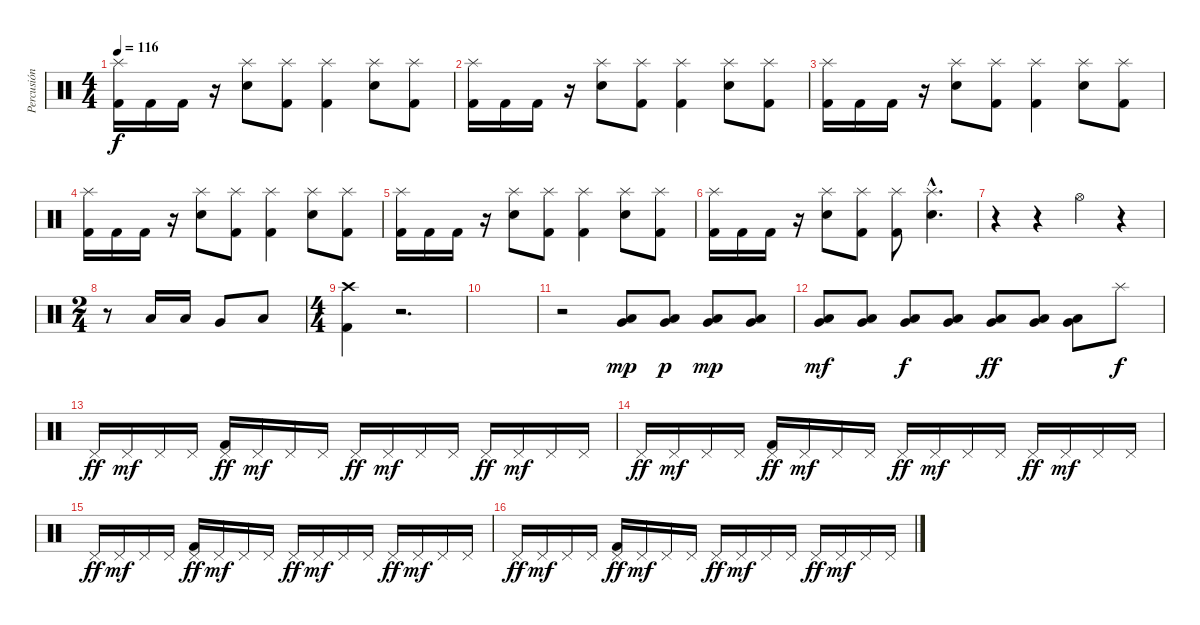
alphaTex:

\track ("Percusión" "Percusión") {instrument percussion}
\staff {score}
\articulation defaults
\ts (4 4)
\tempo 116
\clef neutral
\ks c
("Splash (hit)" "Kick (hit) 2").16{dy f} "Kick (hit) 2".16 "Kick (hit) 2".16 r.16 ("Splash (hit)" "Snare (hit) 2").8 ("Splash (hit)" "Kick (hit) 2").8 ("Splash (hit)" "Kick (hit) 2").4 ("Splash (hit)" "Snare (hit) 2").8 ("Splash (hit)" "Kick (hit) 2").8 |
("Splash (hit)" "Kick (hit) 2").16 "Kick (hit) 2".16 "Kick (hit) 2".16 r.16 ("Splash (hit)" "Snare (hit) 2").8 ("Splash (hit)" "Kick (hit) 2").8 ("Splash (hit)" "Kick (hit) 2").4 ("Splash (hit)" "Snare (hit) 2").8 ("Splash (hit)" "Kick (hit) 2").8 |
("Splash (hit)" "Kick (hit) 2").16 "Kick (hit) 2".16 "Kick (hit) 2".16 r.16 ("Splash (hit)" "Snare (hit) 2").8 ("Splash (hit)" "Kick (hit) 2").8 ("Splash (hit)" "Kick (hit) 2").4 ("Splash (hit)" "Snare (hit) 2").8 ("Splash (hit)" "Kick (hit) 2").8 |
("Splash (hit)" "Kick (hit) 2").16 "Kick (hit) 2".16 "Kick (hit) 2".16 r.16 ("Splash (hit)" "Snare (hit) 2").8 ("Splash (hit)" "Kick (hit) 2").8 ("Splash (hit)" "Kick (hit) 2").4 ("Splash (hit)" "Snare (hit) 2").8 ("Splash (hit)" "Kick (hit) 2").8 |
("Splash (hit)" "Kick (hit) 2").16 "Kick (hit) 2".16 "Kick (hit) 2".16 r.16 ("Splash (hit)" "Snare (hit) 2").8 ("Splash (hit)" "Kick (hit) 2").8 ("Splash (hit)" "Kick (hit) 2").4 ("Splash (hit)" "Snare (hit) 2").8 ("Splash (hit)" "Kick (hit) 2").8 |
("Splash (hit)" "Kick (hit) 2").16 "Kick (hit) 2".16 "Kick (hit) 2".16 r.16 ("Splash (hit)" "Snare (hit) 2").8 ("Splash (hit)" "Kick (hit) 2").8 ("Splash (hit)" "Kick (hit) 2").8 ("Splash (hit)"{hac} "Snare (hit) 2"{hac}).4{d} |
r.4 r.4 "Hi-Hat (open)".4 r.4 |
\ts (2 4)
r.8 "Low Tom (hit)".16 "Low Tom (hit)".16 "Very Low Tom (hit)".8 "Low Floor Tom (hit)".8 |
\ts (4 4)
("Crash high (hit)" "Kick (hit) 2").4 r.2{d} |
|
r.2 ("Very Low Tom (hit)" "Low Floor Tom (hit)").8{dy mp} ("Very Low Tom (hit)" "Low Floor Tom (hit)").8{dy p} ("Very Low Tom (hit)" "Low Floor Tom (hit)").8{dy mp} ("Very Low Tom (hit)" "Low Floor Tom (hit)").8 |
("Very Low Tom (hit)" "Low Floor Tom (hit)").8{dy mf} ("Very Low Tom (hit)" "Low Floor Tom (hit)").8 ("Very Low Tom (hit)" "Low Floor Tom (hit)").8{dy f} ("Very Low Tom (hit)" "Low Floor Tom (hit)").8 ("Very Low Tom (hit)" "Low Floor Tom (hit)").8{dy ff} ("Very Low Tom (hit)" "Low Floor Tom (hit)").8 ("Very Low Tom (hit)" "Low Floor Tom (hit)").8 "Splash (hit)".8{dy f} |
"Pedal Hi-Hat (hit)".16{dy ff} "Pedal Hi-Hat (hit)".16{dy mf} "Pedal Hi-Hat (hit)".16 "Pedal Hi-Hat (hit)".16 ("Pedal Hi-Hat (hit)" "Kick (hit) 2").16{dy ff} "Pedal Hi-Hat (hit)".16{dy mf} "Pedal Hi-Hat (hit)".16 "Pedal Hi-Hat (hit)".16 "Pedal Hi-Hat (hit)".16{dy ff} "Pedal Hi-Hat (hit)".16{dy mf} "Pedal Hi-Hat (hit)".16 "Pedal Hi-Hat (hit)".16 "Pedal Hi-Hat (hit)".16{dy ff} "Pedal Hi-Hat (hit)".16{dy mf} "Pedal Hi-Hat (hit)".16 "Pedal Hi-Hat (hit)".16 |
"Pedal Hi-Hat (hit)".16{dy ff} "Pedal Hi-Hat (hit)".16{dy mf} "Pedal Hi-Hat (hit)".16 "Pedal Hi-Hat (hit)".16 ("Pedal Hi-Hat (hit)" "Kick (hit) 2").16{dy ff} "Pedal Hi-Hat (hit)".16{dy mf} "Pedal Hi-Hat (hit)".16 "Pedal Hi-Hat (hit)".16 "Pedal Hi-Hat (hit)".16{dy ff} "Pedal Hi-Hat (hit)".16{dy mf} "Pedal Hi-Hat (hit)".16 "Pedal Hi-Hat (hit)".16 "Pedal Hi-Hat (hit)".16{dy ff} "Pedal Hi-Hat (hit)".16{dy mf} "Pedal Hi-Hat (hit)".16 "Pedal Hi-Hat (hit)".16 |
"Pedal Hi-Hat (hit)".16{dy ff} "Pedal Hi-Hat (hit)".16{dy mf} "Pedal Hi-Hat (hit)".16 "Pedal Hi-Hat (hit)".16 ("Pedal Hi-Hat (hit)" "Kick (hit) 2").16{dy ff} "Pedal Hi-Hat (hit)".16{dy mf} "Pedal Hi-Hat (hit)".16 "Pedal Hi-Hat (hit)".16 "Pedal Hi-Hat (hit)".16{dy ff} "Pedal Hi-Hat (hit)".16{dy mf} "Pedal Hi-Hat (hit)".16 "Pedal Hi-Hat (hit)".16 "Pedal Hi-Hat (hit)".16{dy ff} "Pedal Hi-Hat (hit)".16{dy mf} "Pedal Hi-Hat (hit)".16 "Pedal Hi-Hat (hit)".16 |
"Pedal Hi-Hat (hit)".16{dy ff} "Pedal Hi-Hat (hit)".16{dy mf} "Pedal Hi-Hat (hit)".16 "Pedal Hi-Hat (hit)".16 ("Pedal Hi-Hat (hit)" "Kick (hit) 2").16{dy ff} "Pedal Hi-Hat (hit)".16{dy mf} "Pedal Hi-Hat (hit)".16 "Pedal Hi-Hat (hit)".16 "Pedal Hi-Hat (hit)".16{dy ff} "Pedal Hi-Hat (hit)".16{dy mf} "Pedal Hi-Hat (hit)".16 "Pedal Hi-Hat (hit)".16 "Pedal Hi-Hat (hit)".16{dy ff} "Pedal Hi-Hat (hit)".16{dy mf} "Pedal Hi-Hat (hit)".16 "Pedal Hi-Hat (hit)".16
